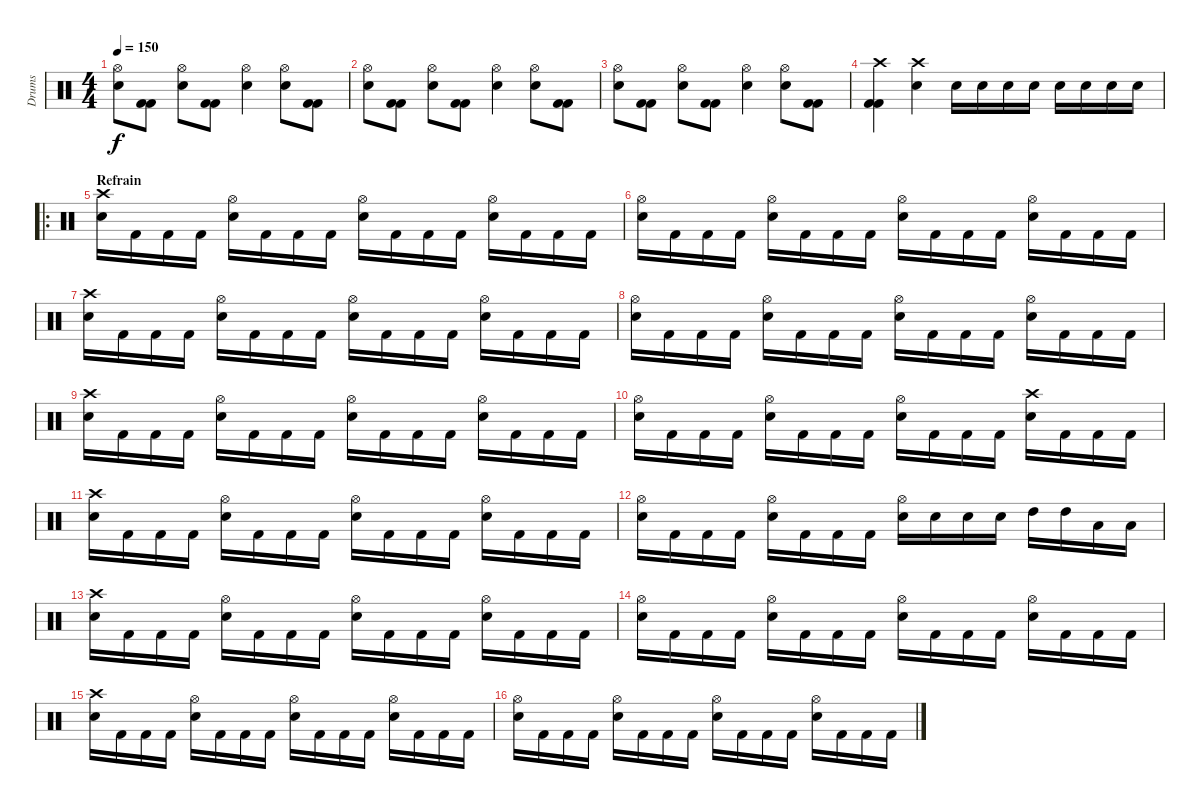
\track ("Drums" "Drums") {instrument percussion}
\staff {score}
\articulation defaults
\ts (4 4)
\tempo 150
\clef neutral
\ks c
("Hi-Hat (open)" "Electric Snare (hit)").8{dy f} ("Kick (hit) 2" "Kick (hit) 2").8 ("Electric Snare (hit)" "Hi-Hat (open)").8 ("Kick (hit) 2" "Kick (hit) 2").8 ("Hi-Hat (open)" "Electric Snare (hit)").4 ("Hi-Hat (open)" "Electric Snare (hit)").8 ("Kick (hit) 2" "Kick (hit) 2").8 |
("Hi-Hat (open)" "Electric Snare (hit)").8 ("Kick (hit) 2" "Kick (hit) 2").8 ("Electric Snare (hit)" "Hi-Hat (open)").8 ("Kick (hit) 2" "Kick (hit) 2").8 ("Hi-Hat (open)" "Electric Snare (hit)").4 ("Hi-Hat (open)" "Electric Snare (hit)").8 ("Kick (hit) 2" "Kick (hit) 2").8 |
("Hi-Hat (open)" "Electric Snare (hit)").8 ("Kick (hit) 2" "Kick (hit) 2").8 ("Electric Snare (hit)" "Hi-Hat (open)").8 ("Kick (hit) 2" "Kick (hit) 2").8 ("Hi-Hat (open)" "Electric Snare (hit)").4 ("Hi-Hat (open)" "Electric Snare (hit)").8 ("Kick (hit) 2" "Kick (hit) 2").8 |
("Crash high (hit)" "Kick (hit) 2" "Kick (hit) 2").4 ("Electric Snare (hit)" "Crash high (hit)").4 "Electric Snare (hit)".16 "Electric Snare (hit)".16 "Electric Snare (hit)".16 "Electric Snare (hit)".16 "Electric Snare (hit)".16 "Electric Snare (hit)".16 "Electric Snare (hit)".16 "Electric Snare (hit)".16 |
\ro
\section ("" "Refrain ")
("Electric Snare (hit)" "Crash high (hit)").16 "Kick (hit) 2".16 "Kick (hit) 2".16 "Kick (hit) 2".16 ("Hi-Hat (open)" "Electric Snare (hit)").16 "Kick (hit) 2".16 "Kick (hit) 2".16 "Kick (hit) 2".16 ("Electric Snare (hit)" "Hi-Hat (open)").16 "Kick (hit) 2".16 "Kick (hit) 2".16 "Kick (hit) 2".16 ("Electric Snare (hit)" "Hi-Hat (open)").16 "Kick (hit) 2".16 "Kick (hit) 2".16 "Kick (hit) 2".16 |
("Electric Snare (hit)" "Hi-Hat (open)").16 "Kick (hit) 2".16 "Kick (hit) 2".16 "Kick (hit) 2".16 ("Hi-Hat (open)" "Electric Snare (hit)").16 "Kick (hit) 2".16 "Kick (hit) 2".16 "Kick (hit) 2".16 ("Electric Snare (hit)" "Hi-Hat (open)").16 "Kick (hit) 2".16 "Kick (hit) 2".16 "Kick (hit) 2".16 ("Electric Snare (hit)" "Hi-Hat (open)").16 "Kick (hit) 2".16 "Kick (hit) 2".16 "Kick (hit) 2".16 |
("Electric Snare (hit)" "Crash high (hit)").16 "Kick (hit) 2".16 "Kick (hit) 2".16 "Kick (hit) 2".16 ("Hi-Hat (open)" "Electric Snare (hit)").16 "Kick (hit) 2".16 "Kick (hit) 2".16 "Kick (hit) 2".16 ("Electric Snare (hit)" "Hi-Hat (open)").16 "Kick (hit) 2".16 "Kick (hit) 2".16 "Kick (hit) 2".16 ("Electric Snare (hit)" "Hi-Hat (open)").16 "Kick (hit) 2".16 "Kick (hit) 2".16 "Kick (hit) 2".16 |
("Electric Snare (hit)" "Hi-Hat (open)").16 "Kick (hit) 2".16 "Kick (hit) 2".16 "Kick (hit) 2".16 ("Hi-Hat (open)" "Electric Snare (hit)").16 "Kick (hit) 2".16 "Kick (hit) 2".16 "Kick (hit) 2".16 ("Electric Snare (hit)" "Hi-Hat (open)").16 "Kick (hit) 2".16 "Kick (hit) 2".16 "Kick (hit) 2".16 ("Electric Snare (hit)" "Hi-Hat (open)").16 "Kick (hit) 2".16 "Kick (hit) 2".16 "Kick (hit) 2".16 |
("Electric Snare (hit)" "Crash high (hit)").16 "Kick (hit) 2".16 "Kick (hit) 2".16 "Kick (hit) 2".16 ("Hi-Hat (open)" "Electric Snare (hit)").16 "Kick (hit) 2".16 "Kick (hit) 2".16 "Kick (hit) 2".16 ("Electric Snare (hit)" "Hi-Hat (open)").16 "Kick (hit) 2".16 "Kick (hit) 2".16 "Kick (hit) 2".16 ("Electric Snare (hit)" "Hi-Hat (open)").16 "Kick (hit) 2".16 "Kick (hit) 2".16 "Kick (hit) 2".16 |
("Electric Snare (hit)" "Hi-Hat (open)").16 "Kick (hit) 2".16 "Kick (hit) 2".16 "Kick (hit) 2".16 ("Hi-Hat (open)" "Electric Snare (hit)").16 "Kick (hit) 2".16 "Kick (hit) 2".16 "Kick (hit) 2".16 ("Electric Snare (hit)" "Hi-Hat (open)").16 "Kick (hit) 2".16 "Kick (hit) 2".16 "Kick (hit) 2".16 ("Electric Snare (hit)" "Crash high (hit)").16 "Kick (hit) 2".16 "Kick (hit) 2".16 "Kick (hit) 2".16 |
("Electric Snare (hit)" "Crash high (hit)").16 "Kick (hit) 2".16 "Kick (hit) 2".16 "Kick (hit) 2".16 ("Hi-Hat (open)" "Electric Snare (hit)").16 "Kick (hit) 2".16 "Kick (hit) 2".16 "Kick (hit) 2".16 ("Electric Snare (hit)" "Hi-Hat (open)").16 "Kick (hit) 2".16 "Kick (hit) 2".16 "Kick (hit) 2".16 ("Electric Snare (hit)" "Hi-Hat (open)").16 "Kick (hit) 2".16 "Kick (hit) 2".16 "Kick (hit) 2".16 |
("Electric Snare (hit)" "Hi-Hat (open)").16 "Kick (hit) 2".16 "Kick (hit) 2".16 "Kick (hit) 2".16 ("Hi-Hat (open)" "Electric Snare (hit)").16 "Kick (hit) 2".16 "Kick (hit) 2".16 "Kick (hit) 2".16 ("Electric Snare (hit)" "Hi-Hat (open)").16 "Electric Snare (hit)".16 "Electric Snare (hit)".16 "Electric Snare (hit)".16 "High Tom (hit)".16 "High Tom (hit)".16 "Low Tom (hit)".16 "Low Tom (hit)".16 |
("Electric Snare (hit)" "Crash high (hit)").16 "Kick (hit) 2".16 "Kick (hit) 2".16 "Kick (hit) 2".16 ("Hi-Hat (open)" "Electric Snare (hit)").16 "Kick (hit) 2".16 "Kick (hit) 2".16 "Kick (hit) 2".16 ("Electric Snare (hit)" "Hi-Hat (open)").16 "Kick (hit) 2".16 "Kick (hit) 2".16 "Kick (hit) 2".16 ("Electric Snare (hit)" "Hi-Hat (open)").16 "Kick (hit) 2".16 "Kick (hit) 2".16 "Kick (hit) 2".16 |
("Electric Snare (hit)" "Hi-Hat (open)").16 "Kick (hit) 2".16 "Kick (hit) 2".16 "Kick (hit) 2".16 ("Hi-Hat (open)" "Electric Snare (hit)").16 "Kick (hit) 2".16 "Kick (hit) 2".16 "Kick (hit) 2".16 ("Electric Snare (hit)" "Hi-Hat (open)").16 "Kick (hit) 2".16 "Kick (hit) 2".16 "Kick (hit) 2".16 ("Electric Snare (hit)" "Hi-Hat (open)").16 "Kick (hit) 2".16 "Kick (hit) 2".16 "Kick (hit) 2".16 |
("Electric Snare (hit)" "Crash high (hit)").16 "Kick (hit) 2".16 "Kick (hit) 2".16 "Kick (hit) 2".16 ("Hi-Hat (open)" "Electric Snare (hit)").16 "Kick (hit) 2".16 "Kick (hit) 2".16 "Kick (hit) 2".16 ("Electric Snare (hit)" "Hi-Hat (open)").16 "Kick (hit) 2".16 "Kick (hit) 2".16 "Kick (hit) 2".16 ("Electric Snare (hit)" "Hi-Hat (open)").16 "Kick (hit) 2".16 "Kick (hit) 2".16 "Kick (hit) 2".16 |
("Electric Snare (hit)" "Hi-Hat (open)").16 "Kick (hit) 2".16 "Kick (hit) 2".16 "Kick (hit) 2".16 ("Hi-Hat (open)" "Electric Snare (hit)").16 "Kick (hit) 2".16 "Kick (hit) 2".16 "Kick (hit) 2".16 ("Electric Snare (hit)" "Hi-Hat (open)").16 "Kick (hit) 2".16 "Kick (hit) 2".16 "Kick (hit) 2".16 ("Electric Snare (hit)" "Hi-Hat (open)").16 "Kick (hit) 2".16 "Kick (hit) 2".16 "Kick (hit) 2".16
